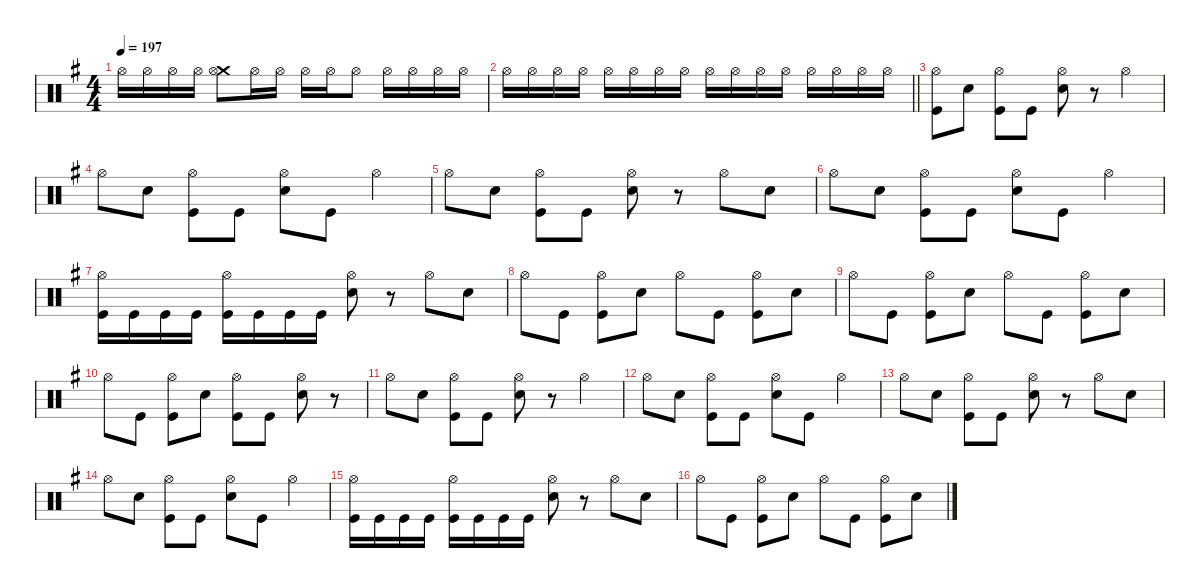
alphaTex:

\defaultSystemsLayout 4
\hideDynamics
\bracketExtendMode nobrackets
\singleTrackTrackNamePolicy hidden
\multiTrackTrackNamePolicy hidden
\firstSystemTrackNameMode fullname
\firstSystemTrackNameOrientation horizontal
\otherSystemsTrackNameOrientation horizontal
\track ("Drums" "drm.") {defaultSystemsLayout 4 instrument percussion}
\staff {score}
\articulation defaults
\ts (4 4)
\tempo 197
\clef neutral
\ks eminor "Hi-Hat (open)"{acc forcenatural}.16{dy mp beam Down} "Hi-Hat (open)"{acc forcenatural}.16{beam Down} "Hi-Hat (open)"{acc forcenatural}.16{beam Down} "Hi-Hat (open)"{acc forcenatural}.16{beam Down}
("Crash medium (hit)"{acc forcenatural} "Hi-Hat (open)"{acc forcenatural}).8{beam Down} "Hi-Hat (open)"{acc forcenatural}.16{beam Down} "Hi-Hat (open)"{acc forcenatural}.16{beam Down} "Hi-Hat (open)"{acc forcenatural}.16{beam Down} "Hi-Hat (open)"{acc forcenatural}.16{beam Down} "Hi-Hat (open)"{acc forcenatural}.8{beam Down} "Hi-Hat (open)"{acc forcenatural}.16{beam Down} "Hi-Hat (open)"{acc forcenatural}.16{beam Down} "Hi-Hat (open)"{acc forcenatural}.16{beam Down} "Hi-Hat (open)"{acc forcenatural}.16{beam Down} |
\barLineRight lightlight "Hi-Hat (open)"{acc forcenatural}.16{beam Down} "Hi-Hat (open)"{acc forcenatural}.16{beam Down} "Hi-Hat (open)"{acc forcenatural}.16{beam Down} "Hi-Hat (open)"{acc forcenatural}.16{beam Down} "Hi-Hat (open)"{acc forcenatural}.16{beam Down} "Hi-Hat (open)"{acc forcenatural}.16{beam Down} "Hi-Hat (open)"{acc forcenatural}.16{beam Down} "Hi-Hat (open)"{acc forcenatural}.16{beam Down} "Hi-Hat (open)"{acc forcenatural}.16{dy mf beam Down} "Hi-Hat (open)"{acc forcenatural}.16{beam Down} "Hi-Hat (open)"{acc forcenatural}.16{beam Down} "Hi-Hat (open)"{acc forcenatural}.16{beam Down} "Hi-Hat (open)"{acc forcenatural}.16{dy f beam Down} "Hi-Hat (open)"{acc forcenatural}.16{beam Down} "Hi-Hat (open)"{acc forcenatural}.16{beam Down} "Hi-Hat (open)"{acc forcenatural}.16{dy ff beam Down}
|
("Hi-Hat (open)"{acc forcenatural} "Kick (hit)"{acc forcenatural}).8{dy mf beam Down} "Snare (hit) 2"{acc forcenatural}.8{dy f beam Down} ("Hi-Hat (open)"{acc forcenatural} "Kick (hit)"{acc forcenatural}).8{dy mf beam Down} "Kick (hit)"{acc forcenatural}.8{dy f beam Down} ("Hi-Hat (open)"{acc forcenatural} "Snare (hit) 2"{acc forcenatural}).8{dy mf beam Down} r.8{beam Down} "Hi-Hat (open)"{acc forcenatural}.4{beam Down} |
"Hi-Hat (open)"{acc forcenatural}.8{beam Down} "Snare (hit) 2"{acc forcenatural}.8{dy f beam Down} ("Hi-Hat (open)"{acc forcenatural} "Kick (hit)"{acc forcenatural}).8{dy mf beam Down} "Kick (hit)"{acc forcenatural}.8{dy f beam Down} ("Hi-Hat (open)"{acc forcenatural} "Snare (hit) 2"{acc forcenatural}).8{dy mf beam Down} "Kick (hit)"{acc forcenatural}.8{dy f beam Down} "Hi-Hat (open)"{acc forcenatural}.4{dy mf beam Down} |
"Hi-Hat (open)"{acc forcenatural}.8{beam Down} "Snare (hit) 2"{acc forcenatural}.8{dy f beam Down} ("Hi-Hat (open)"{acc forcenatural} "Kick (hit)"{acc forcenatural}).8{dy mf beam Down} "Kick (hit)"{acc forcenatural}.8{dy f beam Down} ("Hi-Hat (open)"{acc forcenatural} "Snare (hit) 2"{acc forcenatural}).8{dy mf beam Down} r.8{beam Down} "Hi-Hat (open)"{acc forcenatural}.8{beam Down} "Snare (hit) 2"{acc forcenatural}.8{dy f beam Down} |
"Hi-Hat (open)"{acc forcenatural}.8{dy mf beam Down} "Snare (hit) 2"{acc forcenatural}.8{dy f beam Down} ("Hi-Hat (open)"{acc forcenatural} "Kick (hit)"{acc forcenatural}).8{dy mf beam Down} "Kick (hit)"{acc forcenatural}.8{dy f beam Down} ("Hi-Hat (open)"{acc forcenatural} "Snare (hit) 2"{acc forcenatural}).8{dy mf beam Down} "Kick (hit)"{acc forcenatural}.8{dy f beam Down} "Hi-Hat (open)"{acc forcenatural}.4{dy mf beam Down} |
("Hi-Hat (open)"{acc forcenatural} "Kick (hit)"{acc forcenatural}).16{beam Down} "Kick (hit)"{acc forcenatural}.16{dy f beam Down} "Kick (hit)"{acc forcenatural}.16{beam Down} "Kick (hit)"{acc forcenatural}.16{beam Down} ("Hi-Hat (open)"{acc forcenatural} "Kick (hit)"{acc forcenatural}).16{dy mf beam Down} "Kick (hit)"{acc forcenatural}.16{dy f beam Down} "Kick (hit)"{acc forcenatural}.16{beam Down} "Kick (hit)"{acc forcenatural}.16{beam Down} ("Hi-Hat (open)"{acc forcenatural} "Snare (hit) 2"{acc forcenatural}).8{dy mf beam Down} r.8{beam Down} "Hi-Hat (open)"{acc forcenatural}.8{beam Down} "Snare (hit) 2"{acc forcenatural}.8{dy f beam Down} |
"Hi-Hat (open)"{acc forcenatural}.8{dy mf beam Down} "Kick (hit)"{acc forcenatural}.8{dy f beam Down} ("Hi-Hat (open)"{acc forcenatural} "Kick (hit)"{acc forcenatural}).8{dy mf beam Down} "Snare (hit) 2"{acc forcenatural}.8{dy f beam Down} "Hi-Hat (open)"{acc forcenatural}.8{dy mf beam Down} "Kick (hit)"{acc forcenatural}.8{dy f beam Down} ("Hi-Hat (open)"{acc forcenatural} "Kick (hit)"{acc forcenatural}).8{dy mf beam Down} "Snare (hit) 2"{acc forcenatural}.8{dy f beam Down} |
"Hi-Hat (open)"{acc forcenatural}.8{dy mf beam Down} "Kick (hit)"{acc forcenatural}.8{dy f beam Down} ("Hi-Hat (open)"{acc forcenatural} "Kick (hit)"{acc forcenatural}).8{dy mf beam Down} "Snare (hit) 2"{acc forcenatural}.8{dy f beam Down} "Hi-Hat (open)"{acc forcenatural}.8{dy mf beam Down} "Kick (hit)"{acc forcenatural}.8{dy f beam Down} ("Hi-Hat (open)"{acc forcenatural} "Kick (hit)"{acc forcenatural}).8{dy mf beam Down} "Snare (hit) 2"{acc forcenatural}.8{dy f beam Down} |
"Hi-Hat (open)"{acc forcenatural}.8{dy mf beam Down} "Kick (hit)"{acc forcenatural}.8{dy f beam Down} ("Hi-Hat (open)"{acc forcenatural} "Kick (hit)"{acc forcenatural}).8{dy mf beam Down} "Snare (hit) 2"{acc forcenatural}.8{dy f beam Down} ("Hi-Hat (open)"{acc forcenatural} "Kick (hit)"{acc forcenatural}).8{dy mf beam Down} "Kick (hit)"{acc forcenatural}.8{dy f beam Down} ("Hi-Hat (open)"{acc forcenatural} "Snare (hit) 2"{acc forcenatural}).8{dy mf beam Down} r.8{beam Down} |
"Hi-Hat (open)"{acc forcenatural}.8{beam Down} "Snare (hit) 2"{acc forcenatural}.8{dy f beam Down} ("Hi-Hat (open)"{acc forcenatural} "Kick (hit)"{acc forcenatural}).8{dy mf beam Down} "Kick (hit)"{acc forcenatural}.8{dy f beam Down} ("Hi-Hat (open)"{acc forcenatural} "Snare (hit) 2"{acc forcenatural}).8{dy mf beam Down} r.8{beam Down} "Hi-Hat (open)"{acc forcenatural}.4{beam Down} |
"Hi-Hat (open)"{acc forcenatural}.8{beam Down} "Snare (hit) 2"{acc forcenatural}.8{dy f beam Down} ("Hi-Hat (open)"{acc forcenatural} "Kick (hit)"{acc forcenatural}).8{dy mf beam Down} "Kick (hit)"{acc forcenatural}.8{dy f beam Down} ("Hi-Hat (open)"{acc forcenatural} "Snare (hit) 2"{acc forcenatural}).8{dy mf beam Down} "Kick (hit)"{acc forcenatural}.8{dy f beam Down} "Hi-Hat (open)"{acc forcenatural}.4{dy mf beam Down} |
"Hi-Hat (open)"{acc forcenatural}.8{beam Down} "Snare (hit) 2"{acc forcenatural}.8{dy f beam Down} ("Hi-Hat (open)"{acc forcenatural} "Kick (hit)"{acc forcenatural}).8{dy mf beam Down} "Kick (hit)"{acc forcenatural}.8{dy f beam Down} ("Hi-Hat (open)"{acc forcenatural} "Snare (hit) 2"{acc forcenatural}).8{dy mf beam Down} r.8{beam Down} "Hi-Hat (open)"{acc forcenatural}.8{beam Down} "Snare (hit) 2"{acc forcenatural}.8{dy f beam Down} |
"Hi-Hat (open)"{acc forcenatural}.8{dy mf beam Down} "Snare (hit) 2"{acc forcenatural}.8{dy f beam Down} ("Hi-Hat (open)"{acc forcenatural} "Kick (hit)"{acc forcenatural}).8{dy mf beam Down} "Kick (hit)"{acc forcenatural}.8{dy f beam Down} ("Hi-Hat (open)"{acc forcenatural} "Snare (hit) 2"{acc forcenatural}).8{dy mf beam Down} "Kick (hit)"{acc forcenatural}.8{dy f beam Down} "Hi-Hat (open)"{acc forcenatural}.4{dy mf beam Down} |
("Hi-Hat (open)"{acc forcenatural} "Kick (hit)"{acc forcenatural}).16{beam Down} "Kick (hit)"{acc forcenatural}.16{dy f beam Down} "Kick (hit)"{acc forcenatural}.16{beam Down} "Kick (hit)"{acc forcenatural}.16{beam Down} ("Hi-Hat (open)"{acc forcenatural} "Kick (hit)"{acc forcenatural}).16{dy mf beam Down} "Kick (hit)"{acc forcenatural}.16{dy f beam Down} "Kick (hit)"{acc forcenatural}.16{beam Down} "Kick (hit)"{acc forcenatural}.16{beam Down} ("Hi-Hat (open)"{acc forcenatural} "Snare (hit) 2"{acc forcenatural}).8{dy mf beam Down} r.8{beam Down} "Hi-Hat (open)"{acc forcenatural}.8{beam Down} "Snare (hit) 2"{acc forcenatural}.8{dy f beam Down} |
"Hi-Hat (open)"{acc forcenatural}.8{dy mf beam Down} "Kick (hit)"{acc forcenatural}.8{dy f beam Down} ("Hi-Hat (open)"{acc forcenatural} "Kick (hit)"{acc forcenatural}).8{dy mf beam Down} "Snare (hit) 2"{acc forcenatural}.8{dy f beam Down} "Hi-Hat (open)"{acc forcenatural}.8{dy mf beam Down} "Kick (hit)"{acc forcenatural}.8{dy f beam Down} ("Hi-Hat (open)"{acc forcenatural} "Kick (hit)"{acc forcenatural}).8{dy mf beam Down} "Snare (hit) 2"{acc forcenatural}.8{dy f beam Down}
